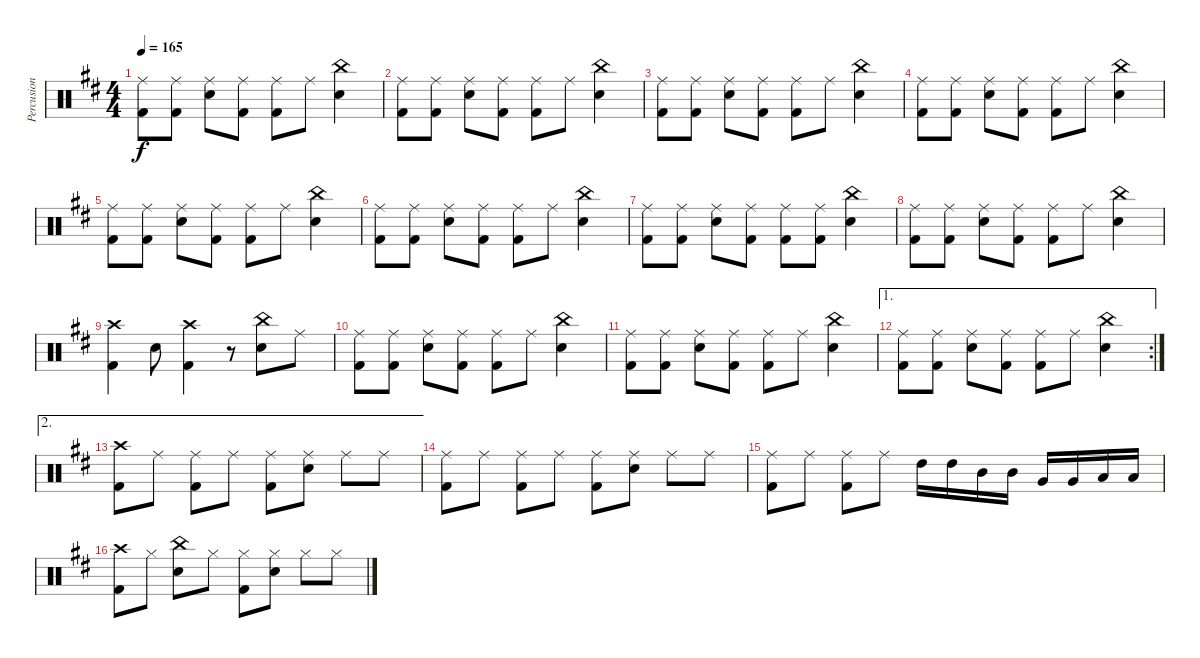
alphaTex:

\track ("Percusion" "Percusion") {instrument percussion}
\staff {score}
\articulation defaults
\ts (4 4)
\tempo 165
\clef neutral
\ks d
("Ride (middle)" "Kick (hit) 2").8{dy f} ("Ride (middle)" "Kick (hit) 2").8 ("Ride (middle)" "Electric Snare (hit)").8 ("Ride (middle)" "Kick (hit) 2").8 ("Ride (middle)" "Kick (hit) 2").8 "Ride (middle)".8 ("China (hit)" "Electric Snare (hit)").4 |
("Ride (middle)" "Kick (hit) 2").8 ("Ride (middle)" "Kick (hit) 2").8 ("Ride (middle)" "Electric Snare (hit)").8 ("Ride (middle)" "Kick (hit) 2").8 ("Ride (middle)" "Kick (hit) 2").8 "Ride (middle)".8 ("China (hit)" "Electric Snare (hit)").4 |
("Ride (middle)" "Kick (hit) 2").8 ("Ride (middle)" "Kick (hit) 2").8 ("Ride (middle)" "Electric Snare (hit)").8 ("Ride (middle)" "Kick (hit) 2").8 ("Ride (middle)" "Kick (hit) 2").8 "Ride (middle)".8 ("China (hit)" "Electric Snare (hit)").4 |
("Ride (middle)" "Kick (hit) 2").8 ("Ride (middle)" "Kick (hit) 2").8 ("Ride (middle)" "Electric Snare (hit)").8 ("Ride (middle)" "Kick (hit) 2").8 ("Ride (middle)" "Kick (hit) 2").8 "Ride (middle)".8 ("China (hit)" "Electric Snare (hit)").4 |
("Ride (middle)" "Kick (hit) 2").8 ("Ride (middle)" "Kick (hit) 2").8 ("Ride (middle)" "Electric Snare (hit)").8 ("Ride (middle)" "Kick (hit) 2").8 ("Ride (middle)" "Kick (hit) 2").8 "Ride (middle)".8 ("China (hit)" "Electric Snare (hit)").4 |
("Ride (middle)" "Kick (hit) 2").8 ("Ride (middle)" "Kick (hit) 2").8 ("Ride (middle)" "Electric Snare (hit)").8 ("Ride (middle)" "Kick (hit) 2").8 ("Ride (middle)" "Kick (hit) 2").8 "Ride (middle)".8 ("China (hit)" "Electric Snare (hit)").4 |
("Ride (middle)" "Kick (hit) 2").8 ("Ride (middle)" "Kick (hit) 2").8 ("Ride (middle)" "Electric Snare (hit)").8 ("Ride (middle)" "Kick (hit) 2").8 ("Ride (middle)" "Kick (hit) 2").8 ("Ride (middle)" "Kick (hit) 2").8 ("China (hit)" "Electric Snare (hit)").4 |
("Ride (middle)" "Kick (hit) 2").8 ("Ride (middle)" "Kick (hit) 2").8 ("Ride (middle)" "Electric Snare (hit)").8 ("Ride (middle)" "Kick (hit) 2").8 ("Ride (middle)" "Kick (hit) 2").8 "Ride (middle)".8 ("China (hit)" "Electric Snare (hit)").4 |
("Crash high (hit)" "Kick (hit) 2").4 "Electric Snare (hit)".8 ("Crash high (hit)" "Kick (hit) 2").4 r.8 ("China (hit)" "Electric Snare (hit)").8 "Ride (middle)".8 |
("Ride (middle)" "Kick (hit) 2").8 ("Ride (middle)" "Kick (hit) 2").8 ("Ride (middle)" "Electric Snare (hit)").8 ("Ride (middle)" "Kick (hit) 2").8 ("Ride (middle)" "Kick (hit) 2").8 "Ride (middle)".8 ("China (hit)" "Electric Snare (hit)").4 |
("Ride (middle)" "Kick (hit) 2").8 ("Ride (middle)" "Kick (hit) 2").8 ("Ride (middle)" "Electric Snare (hit)").8 ("Ride (middle)" "Kick (hit) 2").8 ("Ride (middle)" "Kick (hit) 2").8 "Ride (middle)".8 ("China (hit)" "Electric Snare (hit)").4 |
\ae 1
\rc 2
("Ride (middle)" "Kick (hit) 2").8 ("Ride (middle)" "Kick (hit) 2").8 ("Ride (middle)" "Electric Snare (hit)").8 ("Ride (middle)" "Kick (hit) 2").8 ("Ride (middle)" "Kick (hit) 2").8 "Ride (middle)".8 ("China (hit)" "Electric Snare (hit)").4 |
\ae 2
("Crash high (hit)" "Kick (hit) 2").8 "Ride (middle)".8 ("Ride (middle)" "Kick (hit) 2").8 "Ride (middle)".8 ("Ride (middle)" "Kick (hit) 2").8 ("Ride (middle)" "Electric Snare (hit)").8 "Ride (middle)".8 "Ride (middle)".8 |
("Ride (middle)" "Kick (hit) 2").8 "Ride (middle)".8 ("Ride (middle)" "Kick (hit) 2").8 "Ride (middle)".8 ("Ride (middle)" "Kick (hit) 2").8 ("Ride (middle)" "Electric Snare (hit)").8 "Ride (middle)".8 "Ride (middle)".8 |
("Ride (middle)" "Kick (hit) 2").8 "Ride (middle)".8 ("Ride (middle)" "Kick (hit) 2").8 "Ride (middle)".8 "High Tom (hit)".16 "High Tom (hit)".16 "Mid Tom (hit)".16 "Mid Tom (hit)".16 "Very Low Tom (hit)".16 "Very Low Tom (hit)".16 "Low Floor Tom (hit)".16 "Low Floor Tom (hit)".16 |
("Crash high (hit)" "Kick (hit) 2").8 "Hi-Hat (closed)".8 ("China (hit)" "Electric Snare (hit)").8 "Hi-Hat (closed)".8 ("Hi-Hat (closed)" "Kick (hit) 2").8 ("Hi-Hat (closed)" "Electric Snare (hit)").8 "Hi-Hat (closed)".8 "Hi-Hat (closed)".8
